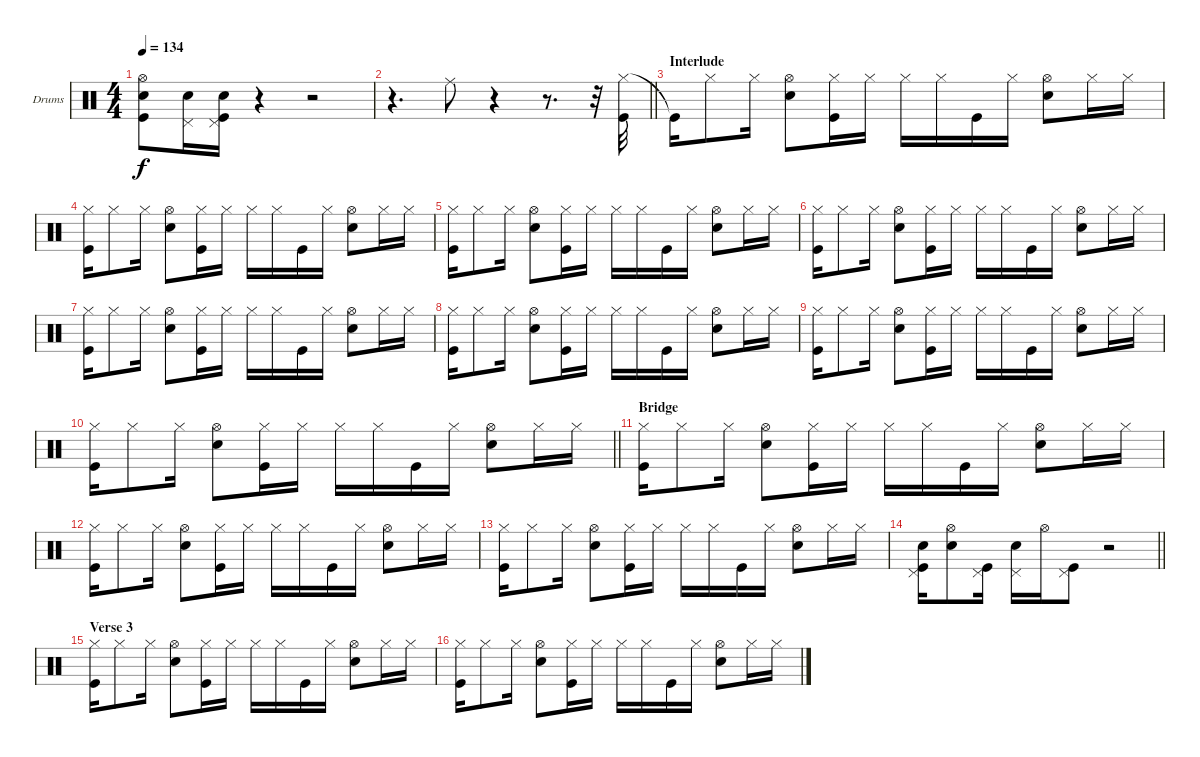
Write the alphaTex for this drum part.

\bracketExtendMode groupsimilarinstruments
\firstSystemTrackNameOrientation horizontal
\otherSystemsTrackNameOrientation horizontal
\track ("Drumkit" "Drums") {instrument percussion}
\staff {score}
\articulation defaults
\ts (4 4)
\tempo 134
\clef neutral
\ks c
("Hi-Hat (open)" "Snare (hit) 2" "Kick (hit)").8{dy f} ("Pedal Hi-Hat (hit)" "Snare (hit) 2").16 ("Pedal Hi-Hat (hit)" "Snare (hit) 2" "Kick (hit)").16 r.4 r.2 |
\barLineRight lightlight
r.4{d} "Ride (middle)".8 r.4 r.8{d} r.32 ("Hi-Hat (closed)" "Kick (hit)").32 |
\section ("" "Interlude")
"Kick (hit)"{t}.16 "Hi-Hat (closed)".8 "Hi-Hat (closed)".16 ("Hi-Hat (open)" "Snare (hit) 2").8 ("Hi-Hat (closed)" "Kick (hit)").16 "Hi-Hat (closed)".16 "Hi-Hat (closed)".16 "Hi-Hat (closed)".16 "Kick (hit)".16 "Hi-Hat (closed)".16 ("Hi-Hat (open)" "Snare (hit) 2").8 "Hi-Hat (closed)".16 "Hi-Hat (closed)".16 |
("Hi-Hat (closed)" "Kick (hit)").16 "Hi-Hat (closed)".8 "Hi-Hat (closed)".16 ("Hi-Hat (open)" "Snare (hit) 2").8 ("Hi-Hat (closed)" "Kick (hit)").16 "Hi-Hat (closed)".16 "Hi-Hat (closed)".16 "Hi-Hat (closed)".16 "Kick (hit)".16 "Hi-Hat (closed)".16 ("Hi-Hat (open)" "Snare (hit) 2").8 "Hi-Hat (closed)".16 "Hi-Hat (closed)".16 |
("Hi-Hat (closed)" "Kick (hit)").16 "Hi-Hat (closed)".8 "Hi-Hat (closed)".16 ("Hi-Hat (open)" "Snare (hit) 2").8 ("Hi-Hat (closed)" "Kick (hit)").16 "Hi-Hat (closed)".16 "Hi-Hat (closed)".16 "Hi-Hat (closed)".16 "Kick (hit)".16 "Hi-Hat (closed)".16 ("Hi-Hat (open)" "Snare (hit) 2").8 "Hi-Hat (closed)".16 "Hi-Hat (closed)".16 |
("Hi-Hat (closed)" "Kick (hit)").16 "Hi-Hat (closed)".8 "Hi-Hat (closed)".16 ("Hi-Hat (open)" "Snare (hit) 2").8 ("Hi-Hat (closed)" "Kick (hit)").16 "Hi-Hat (closed)".16 "Hi-Hat (closed)".16 "Hi-Hat (closed)".16 "Kick (hit)".16 "Hi-Hat (closed)".16 ("Hi-Hat (open)" "Snare (hit) 2").8 "Hi-Hat (closed)".16 "Hi-Hat (closed)".16 |
("Hi-Hat (closed)" "Kick (hit)").16 "Hi-Hat (closed)".8 "Hi-Hat (closed)".16 ("Hi-Hat (open)" "Snare (hit) 2").8 ("Hi-Hat (closed)" "Kick (hit)").16 "Hi-Hat (closed)".16 "Hi-Hat (closed)".16 "Hi-Hat (closed)".16 "Kick (hit)".16 "Hi-Hat (closed)".16 ("Hi-Hat (open)" "Snare (hit) 2").8 "Hi-Hat (closed)".16 "Hi-Hat (closed)".16 |
("Hi-Hat (closed)" "Kick (hit)").16 "Hi-Hat (closed)".8 "Hi-Hat (closed)".16 ("Hi-Hat (open)" "Snare (hit) 2").8 ("Hi-Hat (closed)" "Kick (hit)").16 "Hi-Hat (closed)".16 "Hi-Hat (closed)".16 "Hi-Hat (closed)".16 "Kick (hit)".16 "Hi-Hat (closed)".16 ("Hi-Hat (open)" "Snare (hit) 2").8 "Hi-Hat (closed)".16 "Hi-Hat (closed)".16 |
("Hi-Hat (closed)" "Kick (hit)").16 "Hi-Hat (closed)".8 "Hi-Hat (closed)".16 ("Hi-Hat (open)" "Snare (hit) 2").8 ("Hi-Hat (closed)" "Kick (hit)").16 "Hi-Hat (closed)".16 "Hi-Hat (closed)".16 "Hi-Hat (closed)".16 "Kick (hit)".16 "Hi-Hat (closed)".16 ("Hi-Hat (open)" "Snare (hit) 2").8 "Hi-Hat (closed)".16 "Hi-Hat (closed)".16 |
\barLineRight lightlight
("Hi-Hat (closed)" "Kick (hit)").16 "Hi-Hat (closed)".8 "Hi-Hat (closed)".16 ("Hi-Hat (open)" "Snare (hit) 2").8 ("Hi-Hat (closed)" "Kick (hit)").16 "Hi-Hat (closed)".16 "Hi-Hat (closed)".16 "Hi-Hat (closed)".16 "Kick (hit)".16 "Hi-Hat (closed)".16 ("Hi-Hat (open)" "Snare (hit) 2").8 "Hi-Hat (closed)".16 "Hi-Hat (closed)".16 |
\section ("" "Bridge")
("Hi-Hat (closed)" "Kick (hit)").16 "Hi-Hat (closed)".8 "Hi-Hat (closed)".16 ("Hi-Hat (open)" "Snare (hit) 2").8 ("Hi-Hat (closed)" "Kick (hit)").16 "Hi-Hat (closed)".16 "Hi-Hat (closed)".16 "Hi-Hat (closed)".16 "Kick (hit)".16 "Hi-Hat (closed)".16 ("Hi-Hat (open)" "Snare (hit) 2").8 "Hi-Hat (closed)".16 "Hi-Hat (closed)".16 |
("Hi-Hat (closed)" "Kick (hit)").16 "Hi-Hat (closed)".8 "Hi-Hat (closed)".16 ("Hi-Hat (open)" "Snare (hit) 2").8 ("Hi-Hat (closed)" "Kick (hit)").16 "Hi-Hat (closed)".16 "Hi-Hat (closed)".16 "Hi-Hat (closed)".16 "Kick (hit)".16 "Hi-Hat (closed)".16 ("Hi-Hat (open)" "Snare (hit) 2").8 "Hi-Hat (closed)".16 "Hi-Hat (closed)".16 |
("Hi-Hat (closed)" "Kick (hit)").16 "Hi-Hat (closed)".8 "Hi-Hat (closed)".16 ("Hi-Hat (open)" "Snare (hit) 2").8 ("Hi-Hat (closed)" "Kick (hit)").16 "Hi-Hat (closed)".16 "Hi-Hat (closed)".16 "Hi-Hat (closed)".16 "Kick (hit)".16 "Hi-Hat (closed)".16 ("Hi-Hat (open)" "Snare (hit) 2").8 "Hi-Hat (closed)".16 "Hi-Hat (closed)".16 |
\barLineRight lightlight
("Pedal Hi-Hat (hit)" "Snare (hit) 2" "Kick (hit)").16 ("Hi-Hat (open)" "Snare (hit) 2").8 ("Pedal Hi-Hat (hit)" "Kick (hit)").16 ("Pedal Hi-Hat (hit)" "Snare (hit) 2").16 "Hi-Hat (open)".16 ("Pedal Hi-Hat (hit)" "Kick (hit)").8 r.2 |
\section ("" "Verse 3")
("Hi-Hat (closed)" "Kick (hit)").16 "Hi-Hat (closed)".8 "Hi-Hat (closed)".16 ("Hi-Hat (open)" "Snare (hit) 2").8 ("Hi-Hat (closed)" "Kick (hit)").16 "Hi-Hat (closed)".16 "Hi-Hat (closed)".16 "Hi-Hat (closed)".16 "Kick (hit)".16 "Hi-Hat (closed)".16 ("Hi-Hat (open)" "Snare (hit) 2").8 "Hi-Hat (closed)".16 "Hi-Hat (closed)".16 |
("Hi-Hat (closed)" "Kick (hit)").16 "Hi-Hat (closed)".8 "Hi-Hat (closed)".16 ("Hi-Hat (open)" "Snare (hit) 2").8 ("Hi-Hat (closed)" "Kick (hit)").16 "Hi-Hat (closed)".16 "Hi-Hat (closed)".16 "Hi-Hat (closed)".16 "Kick (hit)".16 "Hi-Hat (closed)".16 ("Hi-Hat (open)" "Snare (hit) 2").8 "Hi-Hat (closed)".16 "Hi-Hat (closed)".16
